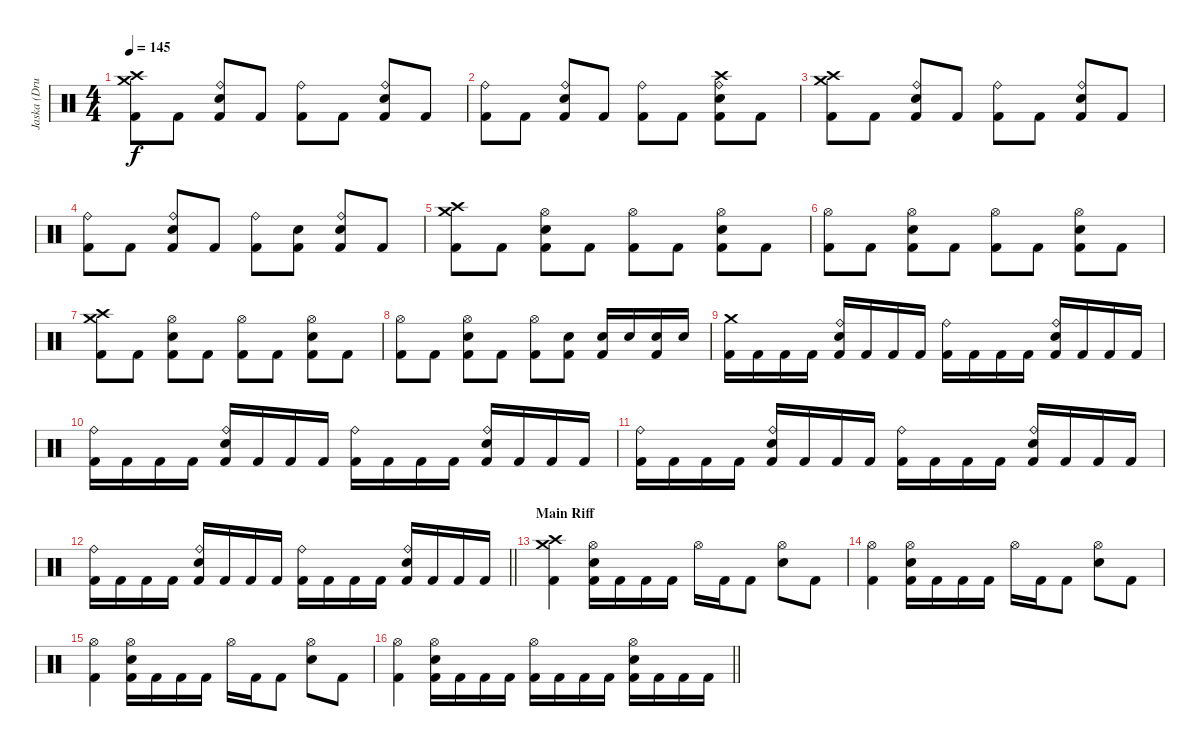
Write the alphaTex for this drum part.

\track ("Jaska (Drums)" "Jaska (Dru") {instrument percussion}
\staff {score}
\articulation defaults
\ts (4 4)
\tempo 145
\clef neutral
\ks c
("Crash medium (hit)" "Crash high (hit)" "Kick (hit) 2").8{dy f} "Kick (hit) 2".8 ("Ride (bell)" "Electric Snare (hit)" "Kick (hit) 2").8 "Kick (hit) 2".8 ("Ride (bell)" "Kick (hit) 2").8 "Kick (hit) 2".8 ("Ride (bell)" "Electric Snare (hit)" "Kick (hit) 2").8 "Kick (hit) 2".8 |
("Ride (bell)" "Kick (hit) 2").8 "Kick (hit) 2".8 ("Ride (bell)" "Electric Snare (hit)" "Kick (hit) 2").8 "Kick (hit) 2".8 ("Ride (bell)" "Kick (hit) 2").8 "Kick (hit) 2".8 ("Crash high (hit)" "Ride (bell)" "Electric Snare (hit)" "Kick (hit) 2").8 "Kick (hit) 2".8 |
("Crash medium (hit)" "Crash high (hit)" "Kick (hit) 2").8 "Kick (hit) 2".8 ("Ride (bell)" "Electric Snare (hit)" "Kick (hit) 2").8 "Kick (hit) 2".8 ("Ride (bell)" "Kick (hit) 2").8 "Kick (hit) 2".8 ("Ride (bell)" "Electric Snare (hit)" "Kick (hit) 2").8 "Kick (hit) 2".8 |
("Ride (bell)" "Kick (hit) 2").8 "Kick (hit) 2".8 ("Ride (bell)" "Electric Snare (hit)" "Kick (hit) 2").8 "Kick (hit) 2".8 ("Ride (bell)" "Kick (hit) 2").8 ("Electric Snare (hit)" "Kick (hit) 2").8 ("Ride (bell)" "Electric Snare (hit)" "Kick (hit) 2").8 "Kick (hit) 2".8 |
("Crash medium (hit)" "Crash high (hit)" "Kick (hit) 2").8 "Kick (hit) 2".8 ("Hi-Hat (open)" "Electric Snare (hit)" "Kick (hit) 2").8 "Kick (hit) 2".8 ("Hi-Hat (open)" "Kick (hit) 2").8 "Kick (hit) 2".8 ("Hi-Hat (open)" "Electric Snare (hit)" "Kick (hit) 2").8 "Kick (hit) 2".8 |
("Hi-Hat (open)" "Kick (hit) 2").8 "Kick (hit) 2".8 ("Hi-Hat (open)" "Electric Snare (hit)" "Kick (hit) 2").8 "Kick (hit) 2".8 ("Hi-Hat (open)" "Kick (hit) 2").8 "Kick (hit) 2".8 ("Hi-Hat (open)" "Electric Snare (hit)" "Kick (hit) 2").8 "Kick (hit) 2".8 |
("Crash medium (hit)" "Crash high (hit)" "Kick (hit) 2").8 "Kick (hit) 2".8 ("Hi-Hat (open)" "Electric Snare (hit)" "Kick (hit) 2").8 "Kick (hit) 2".8 ("Hi-Hat (open)" "Kick (hit) 2").8 "Kick (hit) 2".8 ("Hi-Hat (open)" "Electric Snare (hit)" "Kick (hit) 2").8 "Kick (hit) 2".8 |
("Hi-Hat (open)" "Kick (hit) 2").8 "Kick (hit) 2".8 ("Hi-Hat (open)" "Electric Snare (hit)" "Kick (hit) 2").8 "Kick (hit) 2".8 ("Hi-Hat (open)" "Kick (hit) 2").8 ("Electric Snare (hit)" "Kick (hit) 2").8 ("Electric Snare (hit)" "Kick (hit) 2").16 "Electric Snare (hit)".16 ("Electric Snare (hit)" "Kick (hit) 2").16 "Electric Snare (hit)".16 |
("Crash medium (hit)" "Kick (hit) 2").16 "Kick (hit) 2".16 "Kick (hit) 2".16 "Kick (hit) 2".16 ("Ride (bell)" "Electric Snare (hit)" "Kick (hit) 2").16 "Kick (hit) 2".16 "Kick (hit) 2".16 "Kick (hit) 2".16 ("Ride (bell)" "Kick (hit) 2").16 "Kick (hit) 2".16 "Kick (hit) 2".16 "Kick (hit) 2".16 ("Ride (bell)" "Electric Snare (hit)" "Kick (hit) 2").16 "Kick (hit) 2".16 "Kick (hit) 2".16 "Kick (hit) 2".16 |
("Ride (bell)" "Kick (hit) 2").16 "Kick (hit) 2".16 "Kick (hit) 2".16 "Kick (hit) 2".16 ("Ride (bell)" "Electric Snare (hit)" "Kick (hit) 2").16 "Kick (hit) 2".16 "Kick (hit) 2".16 "Kick (hit) 2".16 ("Ride (bell)" "Kick (hit) 2").16 "Kick (hit) 2".16 "Kick (hit) 2".16 "Kick (hit) 2".16 ("Ride (bell)" "Electric Snare (hit)" "Kick (hit) 2").16 "Kick (hit) 2".16 "Kick (hit) 2".16 "Kick (hit) 2".16 |
("Ride (bell)" "Kick (hit) 2").16 "Kick (hit) 2".16 "Kick (hit) 2".16 "Kick (hit) 2".16 ("Ride (bell)" "Electric Snare (hit)" "Kick (hit) 2").16 "Kick (hit) 2".16 "Kick (hit) 2".16 "Kick (hit) 2".16 ("Ride (bell)" "Kick (hit) 2").16 "Kick (hit) 2".16 "Kick (hit) 2".16 "Kick (hit) 2".16 ("Ride (bell)" "Electric Snare (hit)" "Kick (hit) 2").16 "Kick (hit) 2".16 "Kick (hit) 2".16 "Kick (hit) 2".16 |
\barLineRight lightlight
("Ride (bell)" "Kick (hit) 2").16 "Kick (hit) 2".16 "Kick (hit) 2".16 "Kick (hit) 2".16 ("Ride (bell)" "Electric Snare (hit)" "Kick (hit) 2").16 "Kick (hit) 2".16 "Kick (hit) 2".16 "Kick (hit) 2".16 ("Ride (bell)" "Kick (hit) 2").16 "Kick (hit) 2".16 "Kick (hit) 2".16 "Kick (hit) 2".16 ("Ride (bell)" "Electric Snare (hit)" "Kick (hit) 2").16 "Kick (hit) 2".16 "Kick (hit) 2".16 "Kick (hit) 2".16 |
\section ("" "Main Riff")
("Crash medium (hit)" "Crash high (hit)" "Kick (hit) 2").4 ("Hi-Hat (open)" "Electric Snare (hit)" "Kick (hit) 2").16 "Kick (hit) 2".16 "Kick (hit) 2".16 "Kick (hit) 2".16 "Hi-Hat (open)".16 "Kick (hit) 2".16 "Kick (hit) 2".8 ("Hi-Hat (open)" "Electric Snare (hit)").8 "Kick (hit) 2".8 |
("Hi-Hat (open)" "Kick (hit) 2").4 ("Hi-Hat (open)" "Electric Snare (hit)" "Kick (hit) 2").16 "Kick (hit) 2".16 "Kick (hit) 2".16 "Kick (hit) 2".16 "Hi-Hat (open)".16 "Kick (hit) 2".16 "Kick (hit) 2".8 ("Hi-Hat (open)" "Electric Snare (hit)").8 "Kick (hit) 2".8 |
("Hi-Hat (open)" "Kick (hit) 2").4 ("Hi-Hat (open)" "Electric Snare (hit)" "Kick (hit) 2").16 "Kick (hit) 2".16 "Kick (hit) 2".16 "Kick (hit) 2".16 "Hi-Hat (open)".16 "Kick (hit) 2".16 "Kick (hit) 2".8 ("Hi-Hat (open)" "Electric Snare (hit)").8 "Kick (hit) 2".8 |
\barLineRight lightlight
("Hi-Hat (open)" "Kick (hit) 2").4 ("Hi-Hat (open)" "Electric Snare (hit)" "Kick (hit) 2").16 "Kick (hit) 2".16 "Kick (hit) 2".16 "Kick (hit) 2".16 ("Hi-Hat (open)" "Kick (hit) 2").16 "Kick (hit) 2".16 "Kick (hit) 2".16 "Kick (hit) 2".16 ("Hi-Hat (open)" "Electric Snare (hit)" "Kick (hit) 2").16 "Kick (hit) 2".16 "Kick (hit) 2".16 "Kick (hit) 2".16
